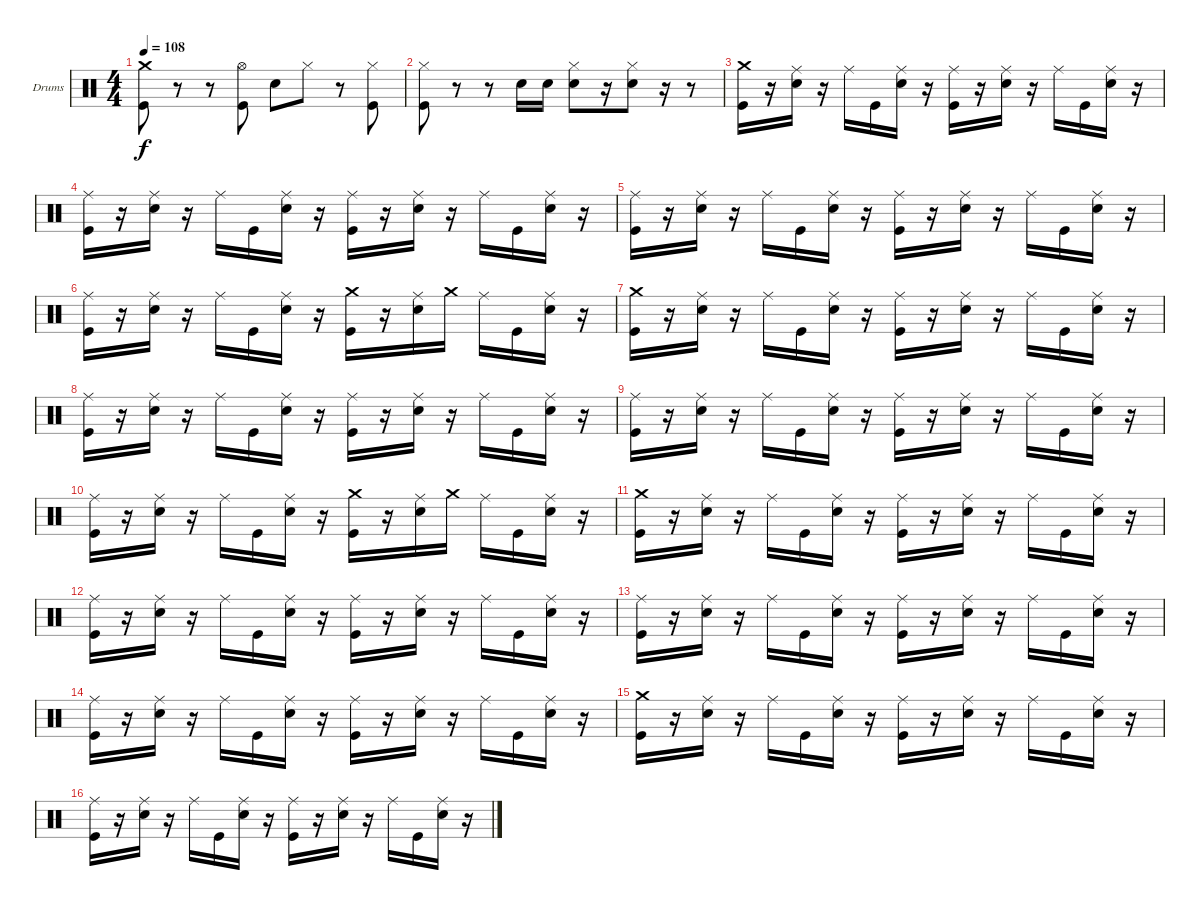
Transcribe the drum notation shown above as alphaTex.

\bracketExtendMode groupsimilarinstruments
\firstSystemTrackNameOrientation horizontal
\otherSystemsTrackNameOrientation horizontal
\track ("Drumkit" "Drums") {instrument percussion}
\staff {score}
\articulation defaults
\ts (4 4)
\tempo 108
\clef neutral
\ks c
("Kick (hit)" "Crash medium (hit)").8{dy f} r.8 r.8 ("Kick (hit)" "Hi-Hat (open)").8 "Snare (hit) 2".8 "Hi-Hat (closed)".8 r.8 ("Kick (hit)" "Hi-Hat (closed)").8 |
("Kick (hit)" "Hi-Hat (closed)").8 r.8 r.8 "Snare (hit) 2".16 "Snare (hit) 2".16 ("Snare (hit) 2" "Hi-Hat (closed)").8 r.16 ("Snare (hit) 2" "Hi-Hat (closed)").8 r.16 r.8 |
("Kick (hit)" "Crash medium (hit)").16 r.16 ("Snare (hit) 2" "Ride (middle)").16 r.16 "Ride (middle)".16 "Kick (hit)".16 ("Snare (hit) 2" "Ride (middle)").16 r.16 ("Kick (hit)" "Ride (middle)").16 r.16 ("Snare (hit) 2" "Ride (middle)").16 r.16 "Ride (middle)".16 "Kick (hit)".16 ("Snare (hit) 2" "Ride (middle)").16 r.16 |
("Kick (hit)" "Ride (middle)").16 r.16 ("Snare (hit) 2" "Ride (middle)").16 r.16 "Ride (middle)".16 "Kick (hit)".16 ("Snare (hit) 2" "Ride (middle)").16 r.16 ("Kick (hit)" "Ride (middle)").16 r.16 ("Snare (hit) 2" "Ride (middle)").16 r.16 "Ride (middle)".16 "Kick (hit)".16 ("Snare (hit) 2" "Ride (middle)").16 r.16 |
("Kick (hit)" "Ride (middle)").16 r.16 ("Snare (hit) 2" "Ride (middle)").16 r.16 "Ride (middle)".16 "Kick (hit)".16 ("Snare (hit) 2" "Ride (middle)").16 r.16 ("Kick (hit)" "Ride (middle)").16 r.16 ("Snare (hit) 2" "Ride (middle)").16 r.16 "Ride (middle)".16 "Kick (hit)".16 ("Snare (hit) 2" "Ride (middle)").16 r.16 |
("Kick (hit)" "Ride (middle)").16 r.16 ("Snare (hit) 2" "Ride (middle)").16 r.16 "Ride (middle)".16 "Kick (hit)".16 ("Snare (hit) 2" "Ride (middle)").16 r.16 ("Kick (hit)" "Crash medium (hit)").16 r.16 ("Snare (hit) 2" "Ride (middle)").16 "Crash medium (hit)".16 "Ride (middle)".16 "Kick (hit)".16 ("Snare (hit) 2" "Ride (middle)").16 r.16 |
("Kick (hit)" "Crash medium (hit)").16 r.16 ("Snare (hit) 2" "Ride (middle)").16 r.16 "Ride (middle)".16 "Kick (hit)".16 ("Snare (hit) 2" "Ride (middle)").16 r.16 ("Kick (hit)" "Ride (middle)").16 r.16 ("Snare (hit) 2" "Ride (middle)").16 r.16 "Ride (middle)".16 "Kick (hit)".16 ("Snare (hit) 2" "Ride (middle)").16 r.16 |
("Kick (hit)" "Ride (middle)").16 r.16 ("Snare (hit) 2" "Ride (middle)").16 r.16 "Ride (middle)".16 "Kick (hit)".16 ("Snare (hit) 2" "Ride (middle)").16 r.16 ("Kick (hit)" "Ride (middle)").16 r.16 ("Snare (hit) 2" "Ride (middle)").16 r.16 "Ride (middle)".16 "Kick (hit)".16 ("Snare (hit) 2" "Ride (middle)").16 r.16 |
("Kick (hit)" "Ride (middle)").16 r.16 ("Snare (hit) 2" "Ride (middle)").16 r.16 "Ride (middle)".16 "Kick (hit)".16 ("Snare (hit) 2" "Ride (middle)").16 r.16 ("Kick (hit)" "Ride (middle)").16 r.16 ("Snare (hit) 2" "Ride (middle)").16 r.16 "Ride (middle)".16 "Kick (hit)".16 ("Snare (hit) 2" "Ride (middle)").16 r.16 |
("Kick (hit)" "Ride (middle)").16 r.16 ("Snare (hit) 2" "Ride (middle)").16 r.16 "Ride (middle)".16 "Kick (hit)".16 ("Snare (hit) 2" "Ride (middle)").16 r.16 ("Kick (hit)" "Crash medium (hit)").16 r.16 ("Snare (hit) 2" "Ride (middle)").16 "Crash medium (hit)".16 "Ride (middle)".16 "Kick (hit)".16 ("Snare (hit) 2" "Ride (middle)").16 r.16 |
("Kick (hit)" "Crash medium (hit)").16 r.16 ("Snare (hit) 2" "Ride (middle)").16 r.16 "Ride (middle)".16 "Kick (hit)".16 ("Snare (hit) 2" "Ride (middle)").16 r.16 ("Kick (hit)" "Ride (middle)").16 r.16 ("Snare (hit) 2" "Ride (middle)").16 r.16 "Ride (middle)".16 "Kick (hit)".16 ("Snare (hit) 2" "Ride (middle)").16 r.16 |
("Kick (hit)" "Ride (middle)").16 r.16 ("Snare (hit) 2" "Ride (middle)").16 r.16 "Ride (middle)".16 "Kick (hit)".16 ("Snare (hit) 2" "Ride (middle)").16 r.16 ("Kick (hit)" "Ride (middle)").16 r.16 ("Snare (hit) 2" "Ride (middle)").16 r.16 "Ride (middle)".16 "Kick (hit)".16 ("Snare (hit) 2" "Ride (middle)").16 r.16 |
("Kick (hit)" "Ride (middle)").16 r.16 ("Snare (hit) 2" "Ride (middle)").16 r.16 "Ride (middle)".16 "Kick (hit)".16 ("Snare (hit) 2" "Ride (middle)").16 r.16 ("Kick (hit)" "Ride (middle)").16 r.16 ("Snare (hit) 2" "Ride (middle)").16 r.16 "Ride (middle)".16 "Kick (hit)".16 ("Snare (hit) 2" "Ride (middle)").16 r.16 |
("Kick (hit)" "Ride (middle)").16 r.16 ("Snare (hit) 2" "Ride (middle)").16 r.16 "Ride (middle)".16 "Kick (hit)".16 ("Snare (hit) 2" "Ride (middle)").16 r.16 ("Kick (hit)" "Ride (middle)").16 r.16 ("Snare (hit) 2" "Ride (middle)").16 r.16 "Ride (middle)".16 "Kick (hit)".16 ("Snare (hit) 2" "Ride (middle)").16 r.16 |
("Kick (hit)" "Crash medium (hit)").16 r.16 ("Snare (hit) 2" "Ride (middle)").16 r.16 "Ride (middle)".16 "Kick (hit)".16 ("Snare (hit) 2" "Ride (middle)").16 r.16 ("Kick (hit)" "Ride (middle)").16 r.16 ("Snare (hit) 2" "Ride (middle)").16 r.16 "Ride (middle)".16 "Kick (hit)".16 ("Snare (hit) 2" "Ride (middle)").16 r.16 |
("Kick (hit)" "Ride (middle)").16 r.16 ("Snare (hit) 2" "Ride (middle)").16 r.16 "Ride (middle)".16 "Kick (hit)".16 ("Snare (hit) 2" "Ride (middle)").16 r.16 ("Kick (hit)" "Ride (middle)").16 r.16 ("Snare (hit) 2" "Ride (middle)").16 r.16 "Ride (middle)".16 "Kick (hit)".16 ("Snare (hit) 2" "Ride (middle)").16 r.16
